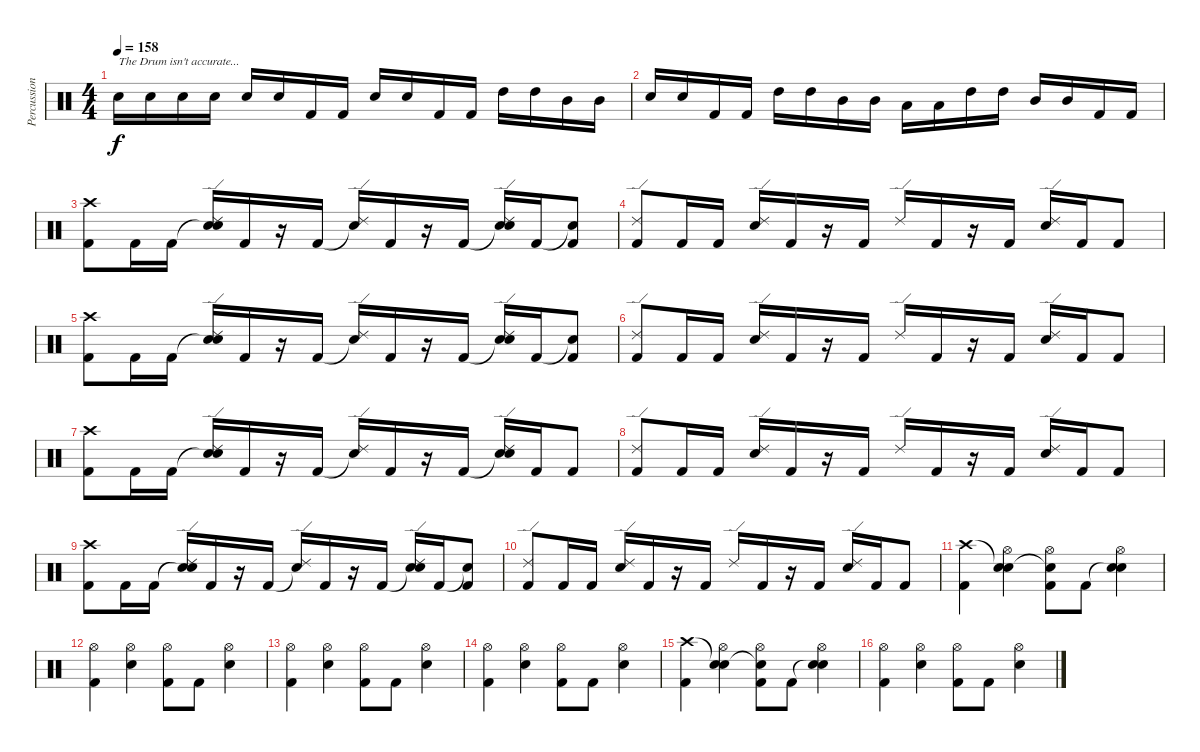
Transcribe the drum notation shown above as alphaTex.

\track ("Percussion" "Percussion") {instrument percussion}
\staff {score}
\articulation defaults
\ts (4 4)
\tempo 158
\clef neutral
\ks c "Snare (hit) 2".16{txt "The Drum isn't accurate..." dy f} "Snare (hit) 2".16 "Snare (hit) 2".16 "Snare (hit) 2".16 "Snare (hit) 2".16 "Snare (hit) 2".16 "Kick (hit) 2".16 "Kick (hit) 2".16 "Snare (hit) 2".16 "Snare (hit) 2".16 "Kick (hit) 2".16 "Kick (hit) 2".16 "High Tom (hit)".16 "High Tom (hit)".16 "Mid Tom (hit)".16 "Mid Tom (hit)".16
|
"Snare (hit) 2".16 "Snare (hit) 2".16 "Kick (hit) 2".16 "Kick (hit) 2".16 "High Tom (hit)".16 "High Tom (hit)".16 "Mid Tom (hit)".16 "Mid Tom (hit)".16 "Low Tom (hit)".16 "Low Tom (hit)".16 "High Tom (hit)".16 "High Tom (hit)".16 "Mid Tom (hit)".16 "Mid Tom (hit)".16 "Kick (hit) 2".16 "Kick (hit) 2".16 |
("Crash high (hit)" "Kick (hit) 2").8 "Kick (hit) 2".16 "Kick (hit) 2".16 ("Snare (hit)"{t} "Ride (edge) 2" "Snare (hit) 2").16 "Kick (hit) 2".16 r.16 "Kick (hit) 2".16 ("Snare (hit)"{t} "Ride (edge) 2").16 "Kick (hit) 2".16 r.16 "Kick (hit) 2".16 ("Snare (hit)"{t} "Ride (edge) 2" "Snare (hit) 2").16 "Kick (hit) 2".16 ("Snare (hit)"{t} "Kick (hit) 2").8 |
("Ride (edge) 2" "Kick (hit) 2").8 "Kick (hit) 2".16 "Kick (hit) 2".16 ("Ride (edge) 2" "Snare (hit) 2").16 "Kick (hit) 2".16 r.16 "Kick (hit) 2".16 "Ride (edge) 2".16 "Kick (hit) 2".16 r.16 "Kick (hit) 2".16 ("Ride (edge) 2" "Snare (hit) 2").16 "Kick (hit) 2".16 "Kick (hit) 2".8 |
("Crash high (hit)" "Kick (hit) 2").8 "Kick (hit) 2".16 "Kick (hit) 2".16 ("Snare (hit)"{t} "Ride (edge) 2" "Snare (hit) 2").16 "Kick (hit) 2".16 r.16 "Kick (hit) 2".16 ("Snare (hit)"{t} "Ride (edge) 2").16 "Kick (hit) 2".16 r.16 "Kick (hit) 2".16 ("Snare (hit)"{t} "Ride (edge) 2" "Snare (hit) 2").16 "Kick (hit) 2".16 ("Snare (hit)"{t} "Kick (hit) 2").8 |
("Ride (edge) 2" "Kick (hit) 2").8 "Kick (hit) 2".16 "Kick (hit) 2".16 ("Ride (edge) 2" "Snare (hit) 2").16 "Kick (hit) 2".16 r.16 "Kick (hit) 2".16 "Ride (edge) 2".16 "Kick (hit) 2".16 r.16 "Kick (hit) 2".16 ("Ride (edge) 2" "Snare (hit) 2").16 "Kick (hit) 2".16 "Kick (hit) 2".8 |
("Crash high (hit)" "Kick (hit) 2").8 "Kick (hit) 2".16 "Kick (hit) 2".16 ("Snare (hit)"{t} "Ride (edge) 2" "Snare (hit) 2").16 "Kick (hit) 2".16 r.16 "Kick (hit) 2".16 ("Snare (hit)"{t} "Ride (edge) 2").16 "Kick (hit) 2".16 r.16 "Kick (hit) 2".16 ("Snare (hit)"{t} "Ride (edge) 2" "Snare (hit) 2").16 "Kick (hit) 2".16 "Kick (hit) 2".8 |
("Ride (edge) 2" "Kick (hit) 2").8 "Kick (hit) 2".16 "Kick (hit) 2".16 ("Ride (edge) 2" "Snare (hit) 2").16 "Kick (hit) 2".16 r.16 "Kick (hit) 2".16 "Ride (edge) 2".16 "Kick (hit) 2".16 r.16 "Kick (hit) 2".16 ("Ride (edge) 2" "Snare (hit) 2").16 "Kick (hit) 2".16 "Kick (hit) 2".8 |
("Crash high (hit)" "Kick (hit) 2").8 "Kick (hit) 2".16 "Kick (hit) 2".16 ("Snare (hit)"{t} "Ride (edge) 2" "Snare (hit) 2").16 "Kick (hit) 2".16 r.16 "Kick (hit) 2".16 ("Snare (hit)"{t} "Ride (edge) 2").16 "Kick (hit) 2".16 r.16 "Kick (hit) 2".16 ("Snare (hit)"{t} "Ride (edge) 2" "Snare (hit) 2").16 "Kick (hit) 2".16 ("Snare (hit)"{t} "Kick (hit) 2").8 |
("Ride (edge) 2" "Kick (hit) 2").8 "Kick (hit) 2".16 "Kick (hit) 2".16 ("Ride (edge) 2" "Snare (hit) 2").16 "Kick (hit) 2".16 r.16 "Kick (hit) 2".16 "Ride (edge) 2".16 "Kick (hit) 2".16 r.16 "Kick (hit) 2".16 ("Ride (edge) 2" "Snare (hit) 2").16 "Kick (hit) 2".16 "Kick (hit) 2".8 |
("Crash high (hit)" "Kick (hit) 2").4 ("Snare (hit)"{t} "Hi-Hat (open)" "Snare (hit) 2").4 ("Snare (hit)"{t} "Hi-Hat (open)" "Kick (hit) 2").8 "Kick (hit) 2".8 ("Snare (hit)"{t} "Hi-Hat (open)" "Snare (hit) 2").4 |
("Hi-Hat (open)" "Kick (hit) 2").4 ("Hi-Hat (open)" "Snare (hit) 2").4 ("Hi-Hat (open)" "Kick (hit) 2").8 "Kick (hit) 2".8 ("Hi-Hat (open)" "Snare (hit) 2").4 |
("Hi-Hat (open)" "Kick (hit) 2").4 ("Hi-Hat (open)" "Snare (hit) 2").4 ("Hi-Hat (open)" "Kick (hit) 2").8 "Kick (hit) 2".8 ("Hi-Hat (open)" "Snare (hit) 2").4 |
("Hi-Hat (open)" "Kick (hit) 2").4 ("Hi-Hat (open)" "Snare (hit) 2").4 ("Hi-Hat (open)" "Kick (hit) 2").8 "Kick (hit) 2".8 ("Hi-Hat (open)" "Snare (hit) 2").4 |
("Crash high (hit)" "Kick (hit) 2").4 ("Snare (hit)"{t} "Hi-Hat (open)" "Snare (hit) 2").4 ("Snare (hit)"{t} "Hi-Hat (open)" "Kick (hit) 2").8 "Kick (hit) 2".8 ("Snare (hit)"{t} "Hi-Hat (open)" "Snare (hit) 2").4 |
("Hi-Hat (open)" "Kick (hit) 2").4 ("Hi-Hat (open)" "Snare (hit) 2").4 ("Hi-Hat (open)" "Kick (hit) 2").8 "Kick (hit) 2".8 ("Hi-Hat (open)" "Snare (hit) 2").4
